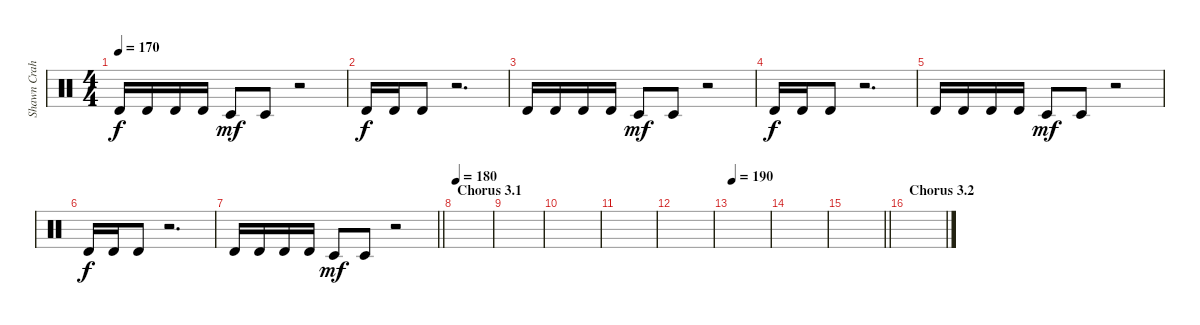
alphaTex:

\track ("Shawn Crahan" "Shawn Crah") {instrument percussion}
\staff {score}
\articulation defaults
\ts (4 4)
\tempo 170
\clef neutral
\ks c "Timbale high (hit)".16{dy f} "Timbale high (hit)".16 "Timbale high (hit)".16 "Timbale high (hit)".16 "Timbale low (hit)".8{dy mf} "Timbale low (hit)".8
r.2 |
"Timbale high (hit)".16{dy f} "Timbale high (hit)".16 "Timbale high (hit)".8 r.2{d} |
"Timbale high (hit)".16 "Timbale high (hit)".16 "Timbale high (hit)".16 "Timbale high (hit)".16 "Timbale low (hit)".8{dy mf} "Timbale low (hit)".8 r.2 |
"Timbale high (hit)".16{dy f} "Timbale high (hit)".16 "Timbale high (hit)".8 r.2{d} |
"Timbale high (hit)".16 "Timbale high (hit)".16 "Timbale high (hit)".16 "Timbale high (hit)".16 "Timbale low (hit)".8{dy mf} "Timbale low (hit)".8 r.2 |
"Timbale high (hit)".16{dy f} "Timbale high (hit)".16 "Timbale high (hit)".8 r.2{d} |
\barLineRight lightlight "Timbale high (hit)".16 "Timbale high (hit)".16 "Timbale high (hit)".16 "Timbale high (hit)".16 "Timbale low (hit)".8{dy mf} "Timbale low (hit)".8
r.2 |
\section ("" "Chorus 3.1")
\tempo 180
|
|
|
|
|
\tempo 190
|
|
\barLineRight lightlight
|
\section ("" "Chorus 3.2")
